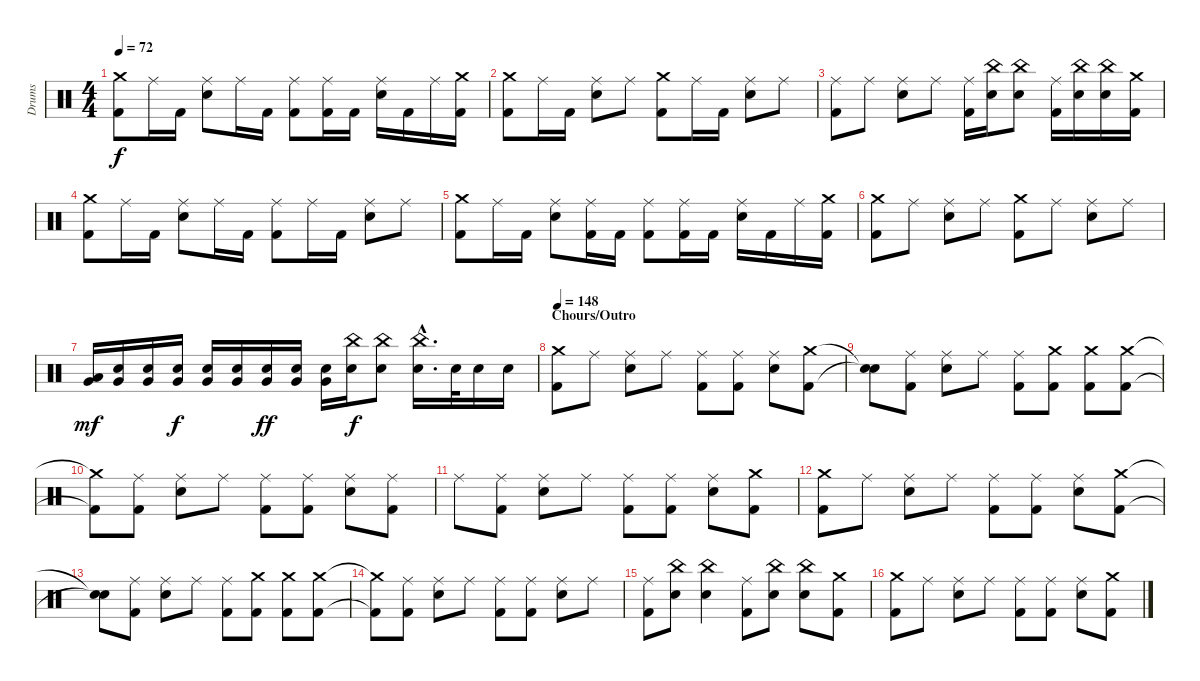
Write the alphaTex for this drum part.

\track ("Drums" "Drums") {instrument percussion}
\staff {score}
\articulation defaults
\ts (4 4)
\tempo 72
\clef neutral
\ks c
("Crash medium (hit)" "Kick (hit) 2").8{dy f} "Ride (middle)".16 "Kick (hit) 2".16 ("Ride (middle)" "Snare (hit) 2").8 "Ride (middle)".16 "Kick (hit) 2".16 ("Ride (middle)" "Kick (hit) 2").8 ("Ride (middle)" "Kick (hit) 2").16 "Kick (hit) 2".16 ("Ride (middle)" "Snare (hit) 2").16 "Kick (hit) 2".16 "Ride (middle)".16 ("Crash medium (hit)" "Kick (hit) 2").16 |
("Crash medium (hit)" "Kick (hit) 2").8 "Ride (middle)".16 "Kick (hit) 2".16 ("Ride (middle)" "Snare (hit) 2").8 "Ride (middle)".8 ("Crash medium (hit)" "Kick (hit) 2").8 "Ride (middle)".16 "Kick (hit) 2".16 ("Ride (middle)" "Snare (hit) 2").8 "Ride (middle)".8 |
("Ride (middle)" "Kick (hit) 2").8 "Ride (middle)".8 ("Ride (middle)" "Snare (hit) 2").8 "Ride (middle)".8 ("Ride (middle)" "Kick (hit) 2").16 ("China (hit)" "Snare (hit) 2").16 ("China (hit)" "Snare (hit) 2").8 ("Ride (middle)" "Kick (hit) 2").16 ("China (hit)" "Snare (hit) 2").16 ("China (hit)" "Snare (hit) 2").16 ("Crash medium (hit)" "Kick (hit) 2").16 |
("Crash medium (hit)" "Kick (hit) 2").8 "Ride (middle)".16 "Kick (hit) 2".16 ("Ride (middle)" "Snare (hit) 2").8 "Ride (middle)".16 "Kick (hit) 2".16 ("Ride (middle)" "Kick (hit) 2").8 "Ride (middle)".16 "Kick (hit) 2".16 ("Ride (middle)" "Snare (hit) 2").8 "Ride (middle)".8 |
("Crash medium (hit)" "Kick (hit) 2").8 "Ride (middle)".16 "Kick (hit) 2".16 ("Ride (middle)" "Snare (hit) 2").8 ("Ride (middle)" "Kick (hit) 2").16 "Kick (hit) 2".16 ("Ride (middle)" "Kick (hit) 2").8 ("Ride (middle)" "Kick (hit) 2").16 "Kick (hit) 2".16 ("Ride (middle)" "Snare (hit) 2").16 "Kick (hit) 2".16 "Ride (middle)".16 ("Crash medium (hit)" "Kick (hit) 2").16 |
("Crash medium (hit)" "Kick (hit) 2").8 "Ride (middle)".8 ("Ride (middle)" "Snare (hit) 2").8 "Ride (middle)".8 ("Crash medium (hit)" "Kick (hit) 2").8 "Ride (middle)".8 ("Ride (middle)" "Snare (hit) 2").8 "Ride (middle)".8 |
("Low Tom (hit)" "Very Low Tom (hit)").16{dy mf} ("Snare (hit) 2" "Very Low Tom (hit)").16 ("Snare (hit) 2" "Very Low Tom (hit)").16 ("Snare (hit) 2" "Very Low Tom (hit)").16{dy f} ("Snare (hit) 2" "Very Low Tom (hit)").16 ("Snare (hit) 2" "Very Low Tom (hit)").16 ("Snare (hit) 2" "Very Low Tom (hit)").16{dy ff} ("Snare (hit) 2" "Very Low Tom (hit)").16 ("Snare (hit) 2" "Very Low Tom (hit)").16 ("China (hit)" "Snare (hit) 2").16{dy f} ("China (hit)" "Snare (hit) 2").8 ("China (hit)"{hac} "Snare (hit) 2"{hac}).16{d} "Snare (hit) 2".32 "Snare (hit) 2".16 "Snare (hit) 2".16 |
\section ("" "Chours/Outro")
\tempo 148
("Crash medium (hit)" "Kick (hit) 2").8 "Ride (middle)".8 ("Ride (middle)" "Snare (hit) 2").8 "Ride (middle)".8 ("Ride (middle)" "Kick (hit) 2").8 ("Ride (middle)" "Kick (hit) 2").8 ("Ride (middle)" "Snare (hit) 2").8 ("Crash medium (hit)" "Kick (hit) 2").8 |
("Snare (hit)"{t} "Snare (hit)"{t}).8 ("Ride (middle)" "Kick (hit) 2").8 ("Ride (middle)" "Snare (hit) 2").8 "Ride (middle)".8 ("Ride (middle)" "Kick (hit) 2").8 ("Crash medium (hit)" "Kick (hit) 2").8 ("Crash medium (hit)" "Kick (hit) 2").8 ("Crash medium (hit)" "Kick (hit) 2").8 |
("Crash medium (hit)"{t} "Kick (hit) 2"{t}).8 ("Ride (middle)" "Kick (hit) 2").8 ("Ride (middle)" "Snare (hit) 2").8 "Ride (middle)".8 ("Ride (middle)" "Kick (hit) 2").8 ("Ride (middle)" "Kick (hit) 2").8 ("Ride (middle)" "Snare (hit) 2").8 ("Ride (middle)" "Kick (hit) 2").8 |
"Ride (middle)".8 ("Ride (middle)" "Kick (hit) 2").8 ("Ride (middle)" "Snare (hit) 2").8 "Ride (middle)".8 ("Ride (middle)" "Kick (hit) 2").8 ("Ride (middle)" "Kick (hit) 2").8 ("Ride (middle)" "Snare (hit) 2").8 ("Crash medium (hit)" "Kick (hit) 2").8 |
("Crash medium (hit)" "Kick (hit) 2").8 "Ride (middle)".8 ("Ride (middle)" "Snare (hit) 2").8 "Ride (middle)".8 ("Ride (middle)" "Kick (hit) 2").8 ("Ride (middle)" "Kick (hit) 2").8 ("Ride (middle)" "Snare (hit) 2").8 ("Crash medium (hit)" "Kick (hit) 2").8 |
("Snare (hit)"{t} "Snare (hit)"{t}).8 ("Ride (middle)" "Kick (hit) 2").8 ("Ride (middle)" "Snare (hit) 2").8 "Ride (middle)".8 ("Ride (middle)" "Kick (hit) 2").8 ("Crash medium (hit)" "Kick (hit) 2").8 ("Crash medium (hit)" "Kick (hit) 2").8 ("Crash medium (hit)" "Kick (hit) 2").8 |
("Crash medium (hit)"{t} "Kick (hit) 2"{t}).8 ("Ride (middle)" "Kick (hit) 2").8 ("Ride (middle)" "Snare (hit) 2").8 "Ride (middle)".8 ("Ride (middle)" "Kick (hit) 2").8 ("Ride (middle)" "Kick (hit) 2").8 ("Ride (middle)" "Snare (hit) 2").8 "Ride (middle)".8 |
("Ride (middle)" "Kick (hit) 2").8 ("China (hit)" "Snare (hit) 2").8 ("China (hit)" "Snare (hit) 2").4 ("Ride (middle)" "Kick (hit) 2").8 ("China (hit)" "Snare (hit) 2").8 ("China (hit)" "Snare (hit) 2").8 ("Crash medium (hit)" "Kick (hit) 2").8 |
("Crash medium (hit)" "Kick (hit) 2").8 "Ride (middle)".8 ("Ride (middle)" "Snare (hit) 2").8 "Ride (middle)".8 ("Ride (middle)" "Kick (hit) 2").8 ("Ride (middle)" "Kick (hit) 2").8 ("Ride (middle)" "Snare (hit) 2").8 ("Crash medium (hit)" "Kick (hit) 2").8
